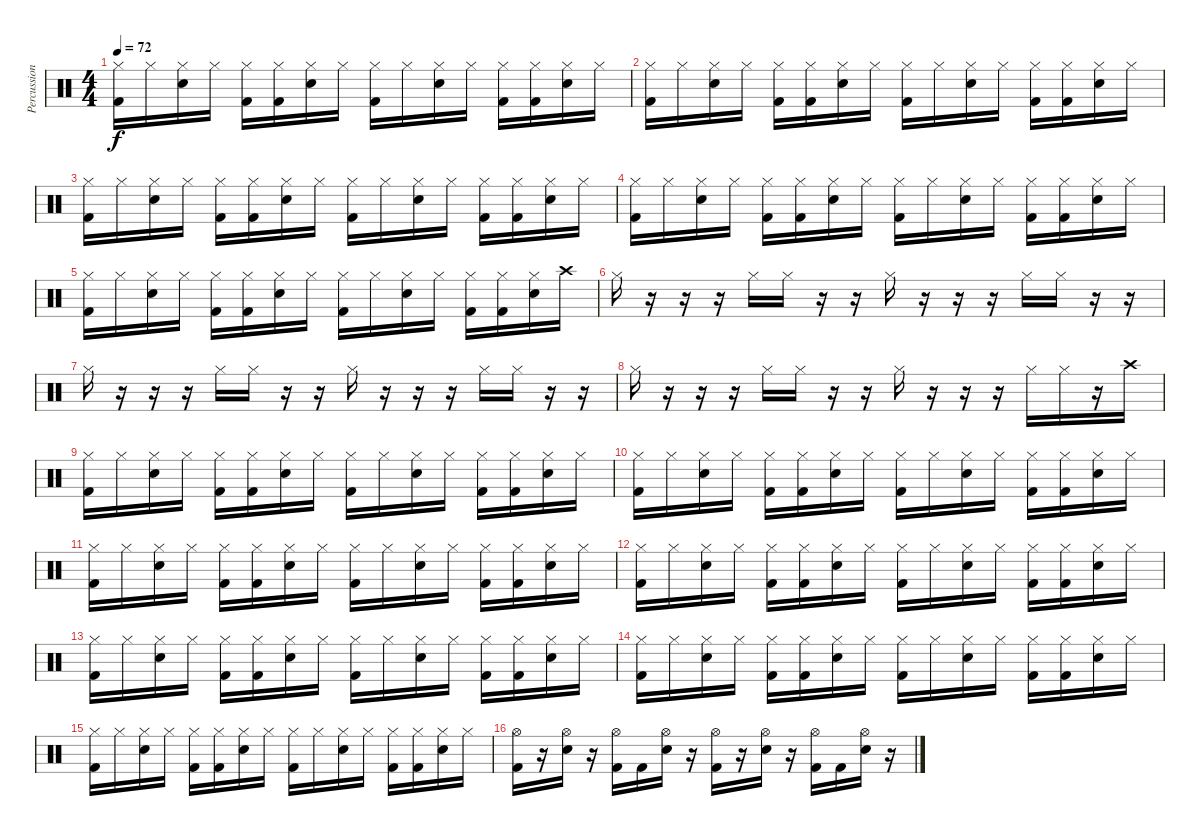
\track ("Percussion" "Percussion") {instrument percussion}
\staff {score}
\articulation defaults
\ts (4 4)
\tempo 72
\clef neutral
\ks c
("Hi-Hat (closed)" "Kick (hit) 2").16{dy f} "Hi-Hat (closed)".16 ("Hi-Hat (closed)" "Snare (hit) 2").16 "Hi-Hat (closed)".16 ("Hi-Hat (closed)" "Kick (hit) 2").16 ("Hi-Hat (closed)" "Kick (hit) 2").16 ("Hi-Hat (closed)" "Snare (hit) 2").16 "Hi-Hat (closed)".16 ("Hi-Hat (closed)" "Kick (hit) 2").16 "Hi-Hat (closed)".16 ("Hi-Hat (closed)" "Snare (hit) 2").16 "Hi-Hat (closed)".16 ("Hi-Hat (closed)" "Kick (hit) 2").16 ("Hi-Hat (closed)" "Kick (hit) 2").16 ("Hi-Hat (closed)" "Snare (hit) 2").16 "Hi-Hat (closed)".16 |
("Hi-Hat (closed)" "Kick (hit) 2").16 "Hi-Hat (closed)".16 ("Hi-Hat (closed)" "Snare (hit) 2").16 "Hi-Hat (closed)".16 ("Hi-Hat (closed)" "Kick (hit) 2").16 ("Hi-Hat (closed)" "Kick (hit) 2").16 ("Hi-Hat (closed)" "Snare (hit) 2").16 "Hi-Hat (closed)".16 ("Hi-Hat (closed)" "Kick (hit) 2").16 "Hi-Hat (closed)".16 ("Hi-Hat (closed)" "Snare (hit) 2").16 "Hi-Hat (closed)".16 ("Hi-Hat (closed)" "Kick (hit) 2").16 ("Hi-Hat (closed)" "Kick (hit) 2").16 ("Hi-Hat (closed)" "Snare (hit) 2").16 "Hi-Hat (closed)".16 |
("Hi-Hat (closed)" "Kick (hit) 2").16 "Hi-Hat (closed)".16 ("Hi-Hat (closed)" "Snare (hit) 2").16 "Hi-Hat (closed)".16 ("Hi-Hat (closed)" "Kick (hit) 2").16 ("Hi-Hat (closed)" "Kick (hit) 2").16 ("Hi-Hat (closed)" "Snare (hit) 2").16 "Hi-Hat (closed)".16 ("Hi-Hat (closed)" "Kick (hit) 2").16 "Hi-Hat (closed)".16 ("Hi-Hat (closed)" "Snare (hit) 2").16 "Hi-Hat (closed)".16 ("Hi-Hat (closed)" "Kick (hit) 2").16 ("Hi-Hat (closed)" "Kick (hit) 2").16 ("Hi-Hat (closed)" "Snare (hit) 2").16 "Hi-Hat (closed)".16 |
("Hi-Hat (closed)" "Kick (hit) 2").16 "Hi-Hat (closed)".16 ("Hi-Hat (closed)" "Snare (hit) 2").16 "Hi-Hat (closed)".16 ("Hi-Hat (closed)" "Kick (hit) 2").16 ("Hi-Hat (closed)" "Kick (hit) 2").16 ("Hi-Hat (closed)" "Snare (hit) 2").16 "Hi-Hat (closed)".16 ("Hi-Hat (closed)" "Kick (hit) 2").16 "Hi-Hat (closed)".16 ("Hi-Hat (closed)" "Snare (hit) 2").16 "Hi-Hat (closed)".16 ("Hi-Hat (closed)" "Kick (hit) 2").16 ("Hi-Hat (closed)" "Kick (hit) 2").16 ("Hi-Hat (closed)" "Snare (hit) 2").16 "Hi-Hat (closed)".16 |
("Hi-Hat (closed)" "Kick (hit) 2").16 "Hi-Hat (closed)".16 ("Hi-Hat (closed)" "Snare (hit) 2").16 "Hi-Hat (closed)".16 ("Hi-Hat (closed)" "Kick (hit) 2").16 ("Hi-Hat (closed)" "Kick (hit) 2").16 ("Hi-Hat (closed)" "Snare (hit) 2").16 "Hi-Hat (closed)".16 ("Hi-Hat (closed)" "Kick (hit) 2").16 "Hi-Hat (closed)".16 ("Hi-Hat (closed)" "Snare (hit) 2").16 "Hi-Hat (closed)".16 ("Hi-Hat (closed)" "Kick (hit) 2").16 ("Hi-Hat (closed)" "Kick (hit) 2").16 ("Hi-Hat (closed)" "Snare (hit) 2").16 "Crash high (hit)".16 |
"Hi-Hat (closed)".16 r.16 r.16 r.16 "Hi-Hat (closed)".16 "Hi-Hat (closed)".16 r.16 r.16 "Hi-Hat (closed)".16 r.16 r.16 r.16 "Hi-Hat (closed)".16 "Hi-Hat (closed)".16 r.16 r.16 |
"Hi-Hat (closed)".16 r.16 r.16 r.16 "Hi-Hat (closed)".16 "Hi-Hat (closed)".16 r.16 r.16 "Hi-Hat (closed)".16 r.16 r.16 r.16 "Hi-Hat (closed)".16 "Hi-Hat (closed)".16 r.16 r.16 |
"Hi-Hat (closed)".16 r.16 r.16 r.16 "Hi-Hat (closed)".16 "Hi-Hat (closed)".16 r.16 r.16 "Hi-Hat (closed)".16 r.16 r.16 r.16 "Hi-Hat (closed)".16 "Hi-Hat (closed)".16 r.16 "Crash high (hit)".16 |
("Hi-Hat (closed)" "Kick (hit) 2").16 "Hi-Hat (closed)".16 ("Hi-Hat (closed)" "Snare (hit) 2").16 "Hi-Hat (closed)".16 ("Hi-Hat (closed)" "Kick (hit) 2").16 ("Hi-Hat (closed)" "Kick (hit) 2").16 ("Hi-Hat (closed)" "Snare (hit) 2").16 "Hi-Hat (closed)".16 ("Hi-Hat (closed)" "Kick (hit) 2").16 "Hi-Hat (closed)".16 ("Hi-Hat (closed)" "Snare (hit) 2").16 "Hi-Hat (closed)".16 ("Hi-Hat (closed)" "Kick (hit) 2").16 ("Hi-Hat (closed)" "Kick (hit) 2").16 ("Hi-Hat (closed)" "Snare (hit) 2").16 "Hi-Hat (closed)".16 |
("Hi-Hat (closed)" "Kick (hit) 2").16 "Hi-Hat (closed)".16 ("Hi-Hat (closed)" "Snare (hit) 2").16 "Hi-Hat (closed)".16 ("Hi-Hat (closed)" "Kick (hit) 2").16 ("Hi-Hat (closed)" "Kick (hit) 2").16 ("Hi-Hat (closed)" "Snare (hit) 2").16 "Hi-Hat (closed)".16 ("Hi-Hat (closed)" "Kick (hit) 2").16 "Hi-Hat (closed)".16 ("Hi-Hat (closed)" "Snare (hit) 2").16 "Hi-Hat (closed)".16 ("Hi-Hat (closed)" "Kick (hit) 2").16 ("Hi-Hat (closed)" "Kick (hit) 2").16 ("Hi-Hat (closed)" "Snare (hit) 2").16 "Hi-Hat (closed)".16 |
("Hi-Hat (closed)" "Kick (hit) 2").16 "Hi-Hat (closed)".16 ("Hi-Hat (closed)" "Snare (hit) 2").16 "Hi-Hat (closed)".16 ("Hi-Hat (closed)" "Kick (hit) 2").16 ("Hi-Hat (closed)" "Kick (hit) 2").16 ("Hi-Hat (closed)" "Snare (hit) 2").16 "Hi-Hat (closed)".16 ("Hi-Hat (closed)" "Kick (hit) 2").16 "Hi-Hat (closed)".16 ("Hi-Hat (closed)" "Snare (hit) 2").16 "Hi-Hat (closed)".16 ("Hi-Hat (closed)" "Kick (hit) 2").16 ("Hi-Hat (closed)" "Kick (hit) 2").16 ("Hi-Hat (closed)" "Snare (hit) 2").16 "Hi-Hat (closed)".16 |
("Hi-Hat (closed)" "Kick (hit) 2").16 "Hi-Hat (closed)".16 ("Hi-Hat (closed)" "Snare (hit) 2").16 "Hi-Hat (closed)".16 ("Hi-Hat (closed)" "Kick (hit) 2").16 ("Hi-Hat (closed)" "Kick (hit) 2").16 ("Hi-Hat (closed)" "Snare (hit) 2").16 "Hi-Hat (closed)".16 ("Hi-Hat (closed)" "Kick (hit) 2").16 "Hi-Hat (closed)".16 ("Hi-Hat (closed)" "Snare (hit) 2").16 "Hi-Hat (closed)".16 ("Hi-Hat (closed)" "Kick (hit) 2").16 ("Hi-Hat (closed)" "Kick (hit) 2").16 ("Hi-Hat (closed)" "Snare (hit) 2").16 "Hi-Hat (closed)".16 |
("Hi-Hat (closed)" "Kick (hit) 2").16 "Hi-Hat (closed)".16 ("Hi-Hat (closed)" "Snare (hit) 2").16 "Hi-Hat (closed)".16 ("Hi-Hat (closed)" "Kick (hit) 2").16 ("Hi-Hat (closed)" "Kick (hit) 2").16 ("Hi-Hat (closed)" "Snare (hit) 2").16 "Hi-Hat (closed)".16 ("Hi-Hat (closed)" "Kick (hit) 2").16 "Hi-Hat (closed)".16 ("Hi-Hat (closed)" "Snare (hit) 2").16 "Hi-Hat (closed)".16 ("Hi-Hat (closed)" "Kick (hit) 2").16 ("Hi-Hat (closed)" "Kick (hit) 2").16 ("Hi-Hat (closed)" "Snare (hit) 2").16 "Hi-Hat (closed)".16 |
("Hi-Hat (closed)" "Kick (hit) 2").16 "Hi-Hat (closed)".16 ("Hi-Hat (closed)" "Snare (hit) 2").16 "Hi-Hat (closed)".16 ("Hi-Hat (closed)" "Kick (hit) 2").16 ("Hi-Hat (closed)" "Kick (hit) 2").16 ("Hi-Hat (closed)" "Snare (hit) 2").16 "Hi-Hat (closed)".16 ("Hi-Hat (closed)" "Kick (hit) 2").16 "Hi-Hat (closed)".16 ("Hi-Hat (closed)" "Snare (hit) 2").16 "Hi-Hat (closed)".16 ("Hi-Hat (closed)" "Kick (hit) 2").16 ("Hi-Hat (closed)" "Kick (hit) 2").16 ("Hi-Hat (closed)" "Snare (hit) 2").16 "Hi-Hat (closed)".16 |
("Hi-Hat (closed)" "Kick (hit) 2").16 "Hi-Hat (closed)".16 ("Hi-Hat (closed)" "Snare (hit) 2").16 "Hi-Hat (closed)".16 ("Hi-Hat (closed)" "Kick (hit) 2").16 ("Hi-Hat (closed)" "Kick (hit) 2").16 ("Hi-Hat (closed)" "Snare (hit) 2").16 "Hi-Hat (closed)".16 ("Hi-Hat (closed)" "Kick (hit) 2").16 "Hi-Hat (closed)".16 ("Hi-Hat (closed)" "Snare (hit) 2").16 "Hi-Hat (closed)".16 ("Hi-Hat (closed)" "Kick (hit) 2").16 ("Hi-Hat (closed)" "Kick (hit) 2").16 ("Hi-Hat (closed)" "Snare (hit) 2").16 "Hi-Hat (closed)".16 |
("Hi-Hat (open)" "Kick (hit) 2").16 r.16 ("Hi-Hat (open)" "Snare (hit) 2").16 r.16 ("Hi-Hat (open)" "Kick (hit) 2").16 "Kick (hit) 2".16 ("Hi-Hat (open)" "Snare (hit) 2").16 r.16 ("Hi-Hat (open)" "Kick (hit) 2").16 r.16 ("Hi-Hat (open)" "Snare (hit) 2").16 r.16 ("Hi-Hat (open)" "Kick (hit) 2").16 "Kick (hit) 2".16 ("Hi-Hat (open)" "Snare (hit) 2").16 r.16
